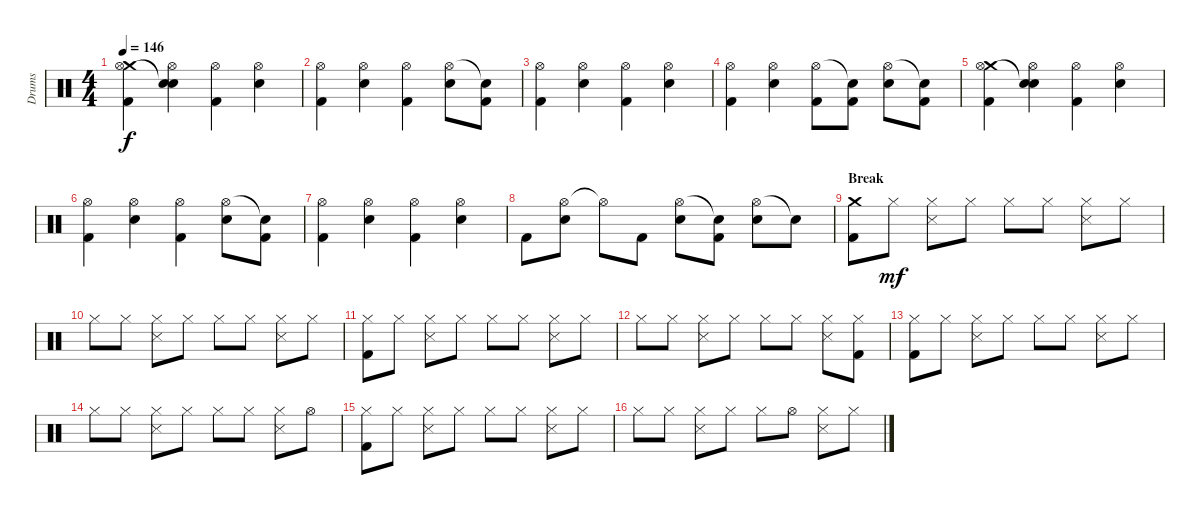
\track ("Drums" "Drums") {instrument percussion}
\staff {score}
\articulation defaults
\ts (4 4)
\tempo 146
\clef neutral
\ks c
("Crash medium (hit)" "Hi-Hat (open)" "Kick (hit) 2").4{dy f} ("Snare (hit)"{t} "Hi-Hat (open)" "Electric Snare (hit)").4 ("Hi-Hat (open)" "Kick (hit) 2").4 ("Hi-Hat (open)" "Electric Snare (hit)").4 |
("Hi-Hat (open)" "Kick (hit) 2").4 ("Hi-Hat (open)" "Electric Snare (hit)").4 ("Hi-Hat (open)" "Kick (hit) 2").4 ("Hi-Hat (open)" "Electric Snare (hit)").8 ("Snare (hit)"{t} "Kick (hit) 2").8 |
("Hi-Hat (open)" "Kick (hit) 2").4 ("Hi-Hat (open)" "Electric Snare (hit)").4 ("Hi-Hat (open)" "Kick (hit) 2").4 ("Hi-Hat (open)" "Electric Snare (hit)").4 |
("Hi-Hat (open)" "Kick (hit) 2").4 ("Hi-Hat (open)" "Electric Snare (hit)").4 ("Hi-Hat (open)" "Kick (hit) 2").8 ("Snare (hit)"{t} "Kick (hit) 2").8 ("Hi-Hat (open)" "Electric Snare (hit)").8 ("Snare (hit)"{t} "Kick (hit) 2").8 |
("Crash medium (hit)" "Hi-Hat (open)" "Kick (hit) 2").4 ("Snare (hit)"{t} "Hi-Hat (open)" "Electric Snare (hit)").4 ("Hi-Hat (open)" "Kick (hit) 2").4 ("Hi-Hat (open)" "Electric Snare (hit)").4 |
("Hi-Hat (open)" "Kick (hit) 2").4 ("Hi-Hat (open)" "Electric Snare (hit)").4 ("Hi-Hat (open)" "Kick (hit) 2").4 ("Hi-Hat (open)" "Electric Snare (hit)").8 ("Snare (hit)"{t} "Kick (hit) 2").8 |
("Hi-Hat (open)" "Kick (hit) 2").4 ("Hi-Hat (open)" "Electric Snare (hit)").4 ("Hi-Hat (open)" "Kick (hit) 2").4 ("Hi-Hat (open)" "Electric Snare (hit)").4 |
"Kick (hit) 2".8 ("Hi-Hat (open)" "Electric Snare (hit)").8 "Hi-Hat (open)"{t}.8 "Kick (hit) 2".8 ("Hi-Hat (open)" "Electric Snare (hit)").8 ("Snare (hit)"{t} "Kick (hit) 2").8 ("Hi-Hat (open)" "Electric Snare (hit)").8 "Snare (hit)"{t}.8 |
\section ("" "Break")
("Crash medium (hit)" "Kick (hit) 2").8 "Hi-Hat (closed)".8{dy mf} ("Hi-Hat (closed)" "Snare (side stick) 3").8 "Hi-Hat (closed)".8 "Hi-Hat (closed)".8 "Hi-Hat (closed)".8 ("Hi-Hat (closed)" "Snare (side stick) 3").8 "Hi-Hat (closed)".8 |
"Hi-Hat (closed)".8 "Hi-Hat (closed)".8 ("Hi-Hat (closed)" "Snare (side stick) 3").8 "Hi-Hat (closed)".8 "Hi-Hat (closed)".8 "Hi-Hat (closed)".8 ("Hi-Hat (closed)" "Snare (side stick) 3").8 "Hi-Hat (closed)".8 |
("Hi-Hat (closed)" "Kick (hit) 2").8 "Hi-Hat (closed)".8 ("Hi-Hat (closed)" "Snare (side stick) 3").8 "Hi-Hat (closed)".8 "Hi-Hat (closed)".8 "Hi-Hat (closed)".8 ("Hi-Hat (closed)" "Snare (side stick) 3").8 "Hi-Hat (closed)".8 |
"Hi-Hat (closed)".8 "Hi-Hat (closed)".8 ("Hi-Hat (closed)" "Snare (side stick) 3").8 "Hi-Hat (closed)".8 "Hi-Hat (closed)".8 "Hi-Hat (closed)".8 ("Hi-Hat (closed)" "Snare (side stick) 3").8 ("Hi-Hat (closed)" "Kick (hit) 2").8 |
("Hi-Hat (closed)" "Kick (hit) 2").8 "Hi-Hat (closed)".8 ("Hi-Hat (closed)" "Snare (side stick) 3").8 "Hi-Hat (closed)".8 "Hi-Hat (closed)".8 "Hi-Hat (closed)".8 ("Hi-Hat (closed)" "Snare (side stick) 3").8 "Hi-Hat (closed)".8 |
"Hi-Hat (closed)".8 "Hi-Hat (closed)".8 ("Hi-Hat (closed)" "Snare (side stick) 3").8 "Hi-Hat (closed)".8 "Hi-Hat (closed)".8 "Hi-Hat (closed)".8 ("Hi-Hat (closed)" "Snare (side stick) 3").8 "Hi-Hat (open)".8 |
("Hi-Hat (closed)" "Kick (hit) 2").8 "Hi-Hat (closed)".8 ("Hi-Hat (closed)" "Snare (side stick) 3").8 "Hi-Hat (closed)".8 "Hi-Hat (closed)".8 "Hi-Hat (closed)".8 ("Hi-Hat (closed)" "Snare (side stick) 3").8 "Hi-Hat (closed)".8 |
"Hi-Hat (closed)".8 "Hi-Hat (closed)".8 ("Hi-Hat (closed)" "Snare (side stick) 3").8 "Hi-Hat (closed)".8 "Hi-Hat (closed)".8 "Hi-Hat (open)".8 ("Hi-Hat (closed)" "Snare (side stick) 3").8 "Hi-Hat (closed)".8
